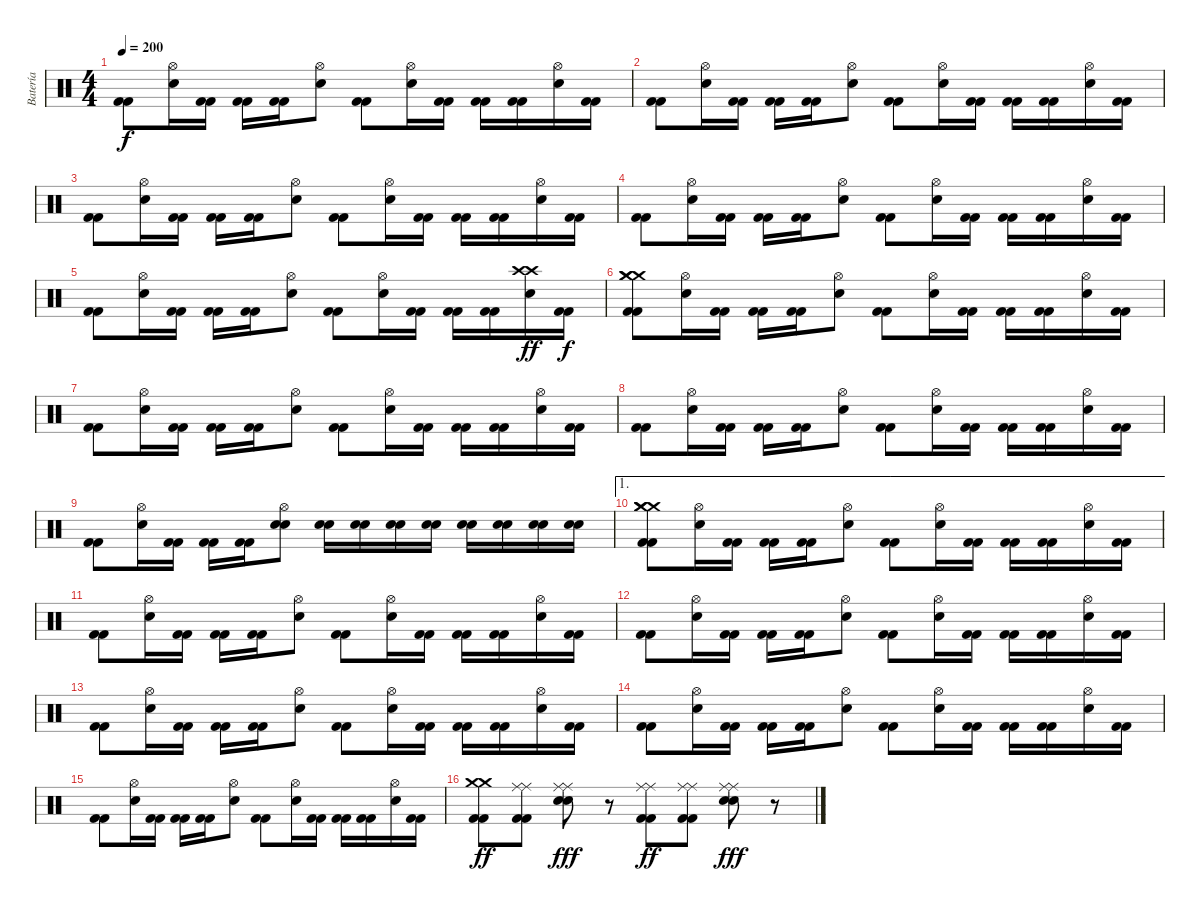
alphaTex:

\track ("Batería" "Batería") {instrument percussion}
\staff {score}
\articulation defaults
\ts (4 4)
\tempo 200
\clef neutral
\ks c
("Kick (hit) 2" "Kick (hit) 2").8{dy f} ("Hi-Hat (open)" "Electric Snare (hit)").16 ("Kick (hit) 2" "Kick (hit) 2").16 ("Kick (hit) 2" "Kick (hit) 2").16 ("Kick (hit) 2" "Kick (hit) 2").16 ("Hi-Hat (open)" "Electric Snare (hit)").8 ("Kick (hit) 2" "Kick (hit) 2").8 ("Hi-Hat (open)" "Electric Snare (hit)").16 ("Kick (hit) 2" "Kick (hit) 2").16 ("Kick (hit) 2" "Kick (hit) 2").16 ("Kick (hit) 2" "Kick (hit) 2").16 ("Hi-Hat (open)" "Electric Snare (hit)").16 ("Kick (hit) 2" "Kick (hit) 2").16 |
("Kick (hit) 2" "Kick (hit) 2").8 ("Hi-Hat (open)" "Electric Snare (hit)").16 ("Kick (hit) 2" "Kick (hit) 2").16 ("Kick (hit) 2" "Kick (hit) 2").16 ("Kick (hit) 2" "Kick (hit) 2").16 ("Hi-Hat (open)" "Electric Snare (hit)").8 ("Kick (hit) 2" "Kick (hit) 2").8 ("Hi-Hat (open)" "Electric Snare (hit)").16 ("Kick (hit) 2" "Kick (hit) 2").16 ("Kick (hit) 2" "Kick (hit) 2").16 ("Kick (hit) 2" "Kick (hit) 2").16 ("Hi-Hat (open)" "Electric Snare (hit)").16 ("Kick (hit) 2" "Kick (hit) 2").16 |
("Kick (hit) 2" "Kick (hit) 2").8 ("Hi-Hat (open)" "Electric Snare (hit)").16 ("Kick (hit) 2" "Kick (hit) 2").16 ("Kick (hit) 2" "Kick (hit) 2").16 ("Kick (hit) 2" "Kick (hit) 2").16 ("Hi-Hat (open)" "Electric Snare (hit)").8 ("Kick (hit) 2" "Kick (hit) 2").8 ("Hi-Hat (open)" "Electric Snare (hit)").16 ("Kick (hit) 2" "Kick (hit) 2").16 ("Kick (hit) 2" "Kick (hit) 2").16 ("Kick (hit) 2" "Kick (hit) 2").16 ("Hi-Hat (open)" "Electric Snare (hit)").16 ("Kick (hit) 2" "Kick (hit) 2").16 |
("Kick (hit) 2" "Kick (hit) 2").8 ("Hi-Hat (open)" "Electric Snare (hit)").16 ("Kick (hit) 2" "Kick (hit) 2").16 ("Kick (hit) 2" "Kick (hit) 2").16 ("Kick (hit) 2" "Kick (hit) 2").16 ("Hi-Hat (open)" "Electric Snare (hit)").8 ("Kick (hit) 2" "Kick (hit) 2").8 ("Hi-Hat (open)" "Electric Snare (hit)").16 ("Kick (hit) 2" "Kick (hit) 2").16 ("Kick (hit) 2" "Kick (hit) 2").16 ("Kick (hit) 2" "Kick (hit) 2").16 ("Hi-Hat (open)" "Electric Snare (hit)").16 ("Kick (hit) 2" "Kick (hit) 2").16 |
("Kick (hit) 2" "Kick (hit) 2").8 ("Hi-Hat (open)" "Electric Snare (hit)").16 ("Kick (hit) 2" "Kick (hit) 2").16 ("Kick (hit) 2" "Kick (hit) 2").16 ("Kick (hit) 2" "Kick (hit) 2").16 ("Hi-Hat (open)" "Electric Snare (hit)").8 ("Kick (hit) 2" "Kick (hit) 2").8 ("Hi-Hat (open)" "Electric Snare (hit)").16 ("Kick (hit) 2" "Kick (hit) 2").16 ("Kick (hit) 2" "Kick (hit) 2").16 ("Kick (hit) 2" "Kick (hit) 2").16 ("Crash high (hit)" "Crash high (hit)" "Electric Snare (hit)").16{dy ff} ("Kick (hit) 2" "Kick (hit) 2").16{dy f} |
("Crash medium (hit)" "Crash medium (hit)" "Crash medium (hit)" "Kick (hit) 2" "Kick (hit) 2").8 ("Hi-Hat (open)" "Electric Snare (hit)").16 ("Kick (hit) 2" "Kick (hit) 2").16 ("Kick (hit) 2" "Kick (hit) 2").16 ("Kick (hit) 2" "Kick (hit) 2").16 ("Hi-Hat (open)" "Electric Snare (hit)").8 ("Kick (hit) 2" "Kick (hit) 2").8 ("Hi-Hat (open)" "Electric Snare (hit)").16 ("Kick (hit) 2" "Kick (hit) 2").16 ("Kick (hit) 2" "Kick (hit) 2").16 ("Kick (hit) 2" "Kick (hit) 2").16 ("Hi-Hat (open)" "Electric Snare (hit)").16 ("Kick (hit) 2" "Kick (hit) 2").16 |
("Kick (hit) 2" "Kick (hit) 2").8 ("Hi-Hat (open)" "Electric Snare (hit)").16 ("Kick (hit) 2" "Kick (hit) 2").16 ("Kick (hit) 2" "Kick (hit) 2").16 ("Kick (hit) 2" "Kick (hit) 2").16 ("Hi-Hat (open)" "Electric Snare (hit)").8 ("Kick (hit) 2" "Kick (hit) 2").8 ("Hi-Hat (open)" "Electric Snare (hit)").16 ("Kick (hit) 2" "Kick (hit) 2").16 ("Kick (hit) 2" "Kick (hit) 2").16 ("Kick (hit) 2" "Kick (hit) 2").16 ("Hi-Hat (open)" "Electric Snare (hit)").16 ("Kick (hit) 2" "Kick (hit) 2").16 |
("Kick (hit) 2" "Kick (hit) 2").8 ("Hi-Hat (open)" "Electric Snare (hit)").16 ("Kick (hit) 2" "Kick (hit) 2").16 ("Kick (hit) 2" "Kick (hit) 2").16 ("Kick (hit) 2" "Kick (hit) 2").16 ("Hi-Hat (open)" "Electric Snare (hit)").8 ("Kick (hit) 2" "Kick (hit) 2").8 ("Hi-Hat (open)" "Electric Snare (hit)").16 ("Kick (hit) 2" "Kick (hit) 2").16 ("Kick (hit) 2" "Kick (hit) 2").16 ("Kick (hit) 2" "Kick (hit) 2").16 ("Hi-Hat (open)" "Electric Snare (hit)").16 ("Kick (hit) 2" "Kick (hit) 2").16 |
("Kick (hit) 2" "Kick (hit) 2").8 ("Hi-Hat (open)" "Electric Snare (hit)").16 ("Kick (hit) 2" "Kick (hit) 2").16 ("Kick (hit) 2" "Kick (hit) 2").16 ("Kick (hit) 2" "Kick (hit) 2").16 ("Hi-Hat (open)" "Electric Snare (hit)" "Electric Snare (hit)").8 ("Electric Snare (hit)" "Electric Snare (hit)").16 ("Electric Snare (hit)" "Electric Snare (hit)").16 ("Electric Snare (hit)" "Electric Snare (hit)").16 ("Electric Snare (hit)" "Electric Snare (hit)").16 ("Electric Snare (hit)" "Electric Snare (hit)").16 ("Electric Snare (hit)" "Electric Snare (hit)").16 ("Electric Snare (hit)" "Electric Snare (hit)").16 ("Electric Snare (hit)" "Electric Snare (hit)").16 |
\ae 1
("Crash medium (hit)" "Crash medium (hit)" "Crash medium (hit)" "Kick (hit) 2" "Kick (hit) 2").8 ("Hi-Hat (open)" "Electric Snare (hit)").16 ("Kick (hit) 2" "Kick (hit) 2").16 ("Kick (hit) 2" "Kick (hit) 2").16 ("Kick (hit) 2" "Kick (hit) 2").16 ("Hi-Hat (open)" "Electric Snare (hit)").8 ("Kick (hit) 2" "Kick (hit) 2").8 ("Hi-Hat (open)" "Electric Snare (hit)").16 ("Kick (hit) 2" "Kick (hit) 2").16 ("Kick (hit) 2" "Kick (hit) 2").16 ("Kick (hit) 2" "Kick (hit) 2").16 ("Hi-Hat (open)" "Electric Snare (hit)").16 ("Kick (hit) 2" "Kick (hit) 2").16 |
("Kick (hit) 2" "Kick (hit) 2").8 ("Hi-Hat (open)" "Electric Snare (hit)").16 ("Kick (hit) 2" "Kick (hit) 2").16 ("Kick (hit) 2" "Kick (hit) 2").16 ("Kick (hit) 2" "Kick (hit) 2").16 ("Hi-Hat (open)" "Electric Snare (hit)").8 ("Kick (hit) 2" "Kick (hit) 2").8 ("Hi-Hat (open)" "Electric Snare (hit)").16 ("Kick (hit) 2" "Kick (hit) 2").16 ("Kick (hit) 2" "Kick (hit) 2").16 ("Kick (hit) 2" "Kick (hit) 2").16 ("Hi-Hat (open)" "Electric Snare (hit)").16 ("Kick (hit) 2" "Kick (hit) 2").16 |
("Kick (hit) 2" "Kick (hit) 2").8 ("Hi-Hat (open)" "Electric Snare (hit)").16 ("Kick (hit) 2" "Kick (hit) 2").16 ("Kick (hit) 2" "Kick (hit) 2").16 ("Kick (hit) 2" "Kick (hit) 2").16 ("Hi-Hat (open)" "Electric Snare (hit)").8 ("Kick (hit) 2" "Kick (hit) 2").8 ("Hi-Hat (open)" "Electric Snare (hit)").16 ("Kick (hit) 2" "Kick (hit) 2").16 ("Kick (hit) 2" "Kick (hit) 2").16 ("Kick (hit) 2" "Kick (hit) 2").16 ("Hi-Hat (open)" "Electric Snare (hit)").16 ("Kick (hit) 2" "Kick (hit) 2").16 |
("Kick (hit) 2" "Kick (hit) 2").8 ("Hi-Hat (open)" "Electric Snare (hit)").16 ("Kick (hit) 2" "Kick (hit) 2").16 ("Kick (hit) 2" "Kick (hit) 2").16 ("Kick (hit) 2" "Kick (hit) 2").16 ("Hi-Hat (open)" "Electric Snare (hit)").8 ("Kick (hit) 2" "Kick (hit) 2").8 ("Hi-Hat (open)" "Electric Snare (hit)").16 ("Kick (hit) 2" "Kick (hit) 2").16 ("Kick (hit) 2" "Kick (hit) 2").16 ("Kick (hit) 2" "Kick (hit) 2").16 ("Hi-Hat (open)" "Electric Snare (hit)").16 ("Kick (hit) 2" "Kick (hit) 2").16 |
("Kick (hit) 2" "Kick (hit) 2").8 ("Hi-Hat (open)" "Electric Snare (hit)").16 ("Kick (hit) 2" "Kick (hit) 2").16 ("Kick (hit) 2" "Kick (hit) 2").16 ("Kick (hit) 2" "Kick (hit) 2").16 ("Hi-Hat (open)" "Electric Snare (hit)").8 ("Kick (hit) 2" "Kick (hit) 2").8 ("Hi-Hat (open)" "Electric Snare (hit)").16 ("Kick (hit) 2" "Kick (hit) 2").16 ("Kick (hit) 2" "Kick (hit) 2").16 ("Kick (hit) 2" "Kick (hit) 2").16 ("Hi-Hat (open)" "Electric Snare (hit)").16 ("Kick (hit) 2" "Kick (hit) 2").16 |
("Kick (hit) 2" "Kick (hit) 2").8 ("Hi-Hat (open)" "Electric Snare (hit)").16 ("Kick (hit) 2" "Kick (hit) 2").16 ("Kick (hit) 2" "Kick (hit) 2").16 ("Kick (hit) 2" "Kick (hit) 2").16 ("Hi-Hat (open)" "Electric Snare (hit)").8 ("Kick (hit) 2" "Kick (hit) 2").8 ("Hi-Hat (open)" "Electric Snare (hit)").16 ("Kick (hit) 2" "Kick (hit) 2").16 ("Kick (hit) 2" "Kick (hit) 2").16 ("Kick (hit) 2" "Kick (hit) 2").16 ("Hi-Hat (open)" "Electric Snare (hit)").16 ("Kick (hit) 2" "Kick (hit) 2").16 |
("Crash medium (hit)" "Crash medium (hit)" "Kick (hit) 2" "Kick (hit) 2").8{dy ff} ("Ride (middle)" "Ride (middle)" "Kick (hit) 2" "Kick (hit) 2").8 ("Ride (middle)" "Ride (middle)" "Electric Snare (hit)" "Electric Snare (hit)").8{dy fff} r.8 ("Ride (middle)" "Ride (middle)" "Kick (hit) 2" "Kick (hit) 2").8{dy ff} ("Ride (middle)" "Ride (middle)" "Kick (hit) 2" "Kick (hit) 2").8 ("Ride (middle)" "Ride (middle)" "Electric Snare (hit)" "Electric Snare (hit)").8{dy fff} r.8
